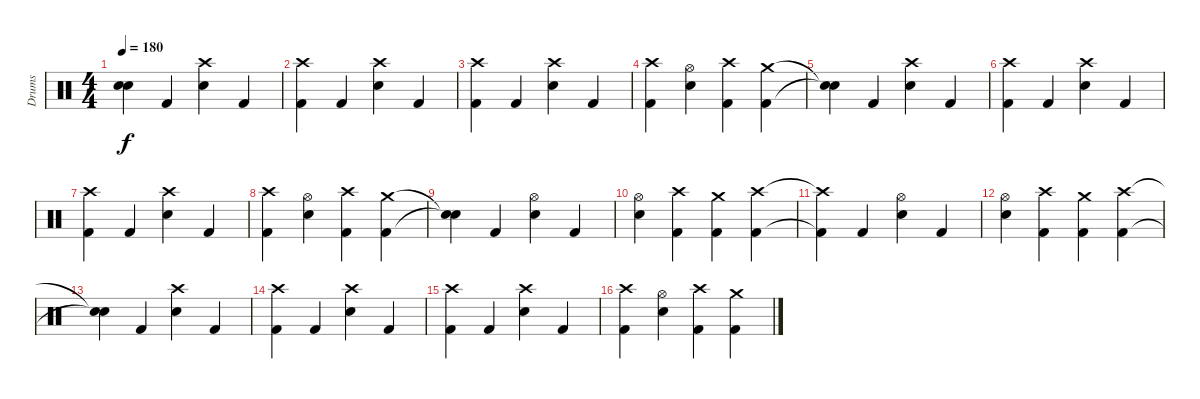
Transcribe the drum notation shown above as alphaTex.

\track ("Drums" "Drums") {instrument percussion}
\staff {score}
\articulation defaults
\ts (4 4)
\tempo 180
\clef neutral
\ks c
("Snare (hit)"{t} "Snare (hit)"{t}).4{dy f} "Kick (hit) 2".4 ("Crash high (hit)" "Electric Snare (hit)").4 "Kick (hit) 2".4 |
("Crash high (hit)" "Kick (hit) 2").4 "Kick (hit) 2".4 ("Crash high (hit)" "Electric Snare (hit)").4 "Kick (hit) 2".4 |
("Crash high (hit)" "Kick (hit) 2").4 "Kick (hit) 2".4 ("Crash high (hit)" "Electric Snare (hit)").4 "Kick (hit) 2".4 |
("Crash high (hit)" "Kick (hit) 2").4 ("Hi-Hat (open)" "Electric Snare (hit)").4 ("Crash high (hit)" "Kick (hit) 2").4 ("Crash medium (hit)" "Kick (hit) 2").4 |
("Snare (hit)"{t} "Snare (hit)"{t}).4 "Kick (hit) 2".4 ("Crash high (hit)" "Electric Snare (hit)").4 "Kick (hit) 2".4 |
("Crash high (hit)" "Kick (hit) 2").4 "Kick (hit) 2".4 ("Crash high (hit)" "Electric Snare (hit)").4 "Kick (hit) 2".4 |
("Crash high (hit)" "Kick (hit) 2").4 "Kick (hit) 2".4 ("Crash high (hit)" "Electric Snare (hit)").4 "Kick (hit) 2".4 |
("Crash high (hit)" "Kick (hit) 2").4 ("Hi-Hat (open)" "Electric Snare (hit)").4 ("Crash high (hit)" "Kick (hit) 2").4 ("Crash medium (hit)" "Kick (hit) 2").4 |
("Snare (hit)"{t} "Snare (hit)"{t}).4 "Kick (hit) 2".4 ("Hi-Hat (open)" "Electric Snare (hit)").4 "Kick (hit) 2".4 |
("Hi-Hat (open)" "Electric Snare (hit)").4 ("Crash high (hit)" "Kick (hit) 2").4 ("Crash medium (hit)" "Kick (hit) 2").4 ("Crash high (hit)" "Kick (hit) 2").4 |
("Crash high (hit)"{t} "Kick (hit) 2"{t}).4 "Kick (hit) 2".4 ("Hi-Hat (open)" "Electric Snare (hit)").4 "Kick (hit) 2".4 |
("Hi-Hat (open)" "Electric Snare (hit)").4 ("Crash high (hit)" "Kick (hit) 2").4 ("Crash medium (hit)" "Kick (hit) 2").4 ("Crash high (hit)" "Kick (hit) 2").4 |
("Snare (hit)"{t} "Snare (hit)"{t}).4 "Kick (hit) 2".4 ("Crash high (hit)" "Electric Snare (hit)").4 "Kick (hit) 2".4 |
("Crash high (hit)" "Kick (hit) 2").4 "Kick (hit) 2".4 ("Crash high (hit)" "Electric Snare (hit)").4 "Kick (hit) 2".4 |
("Crash high (hit)" "Kick (hit) 2").4 "Kick (hit) 2".4 ("Crash high (hit)" "Electric Snare (hit)").4 "Kick (hit) 2".4 |
("Crash high (hit)" "Kick (hit) 2").4 ("Hi-Hat (open)" "Electric Snare (hit)").4 ("Crash high (hit)" "Kick (hit) 2").4 ("Crash medium (hit)" "Kick (hit) 2").4
